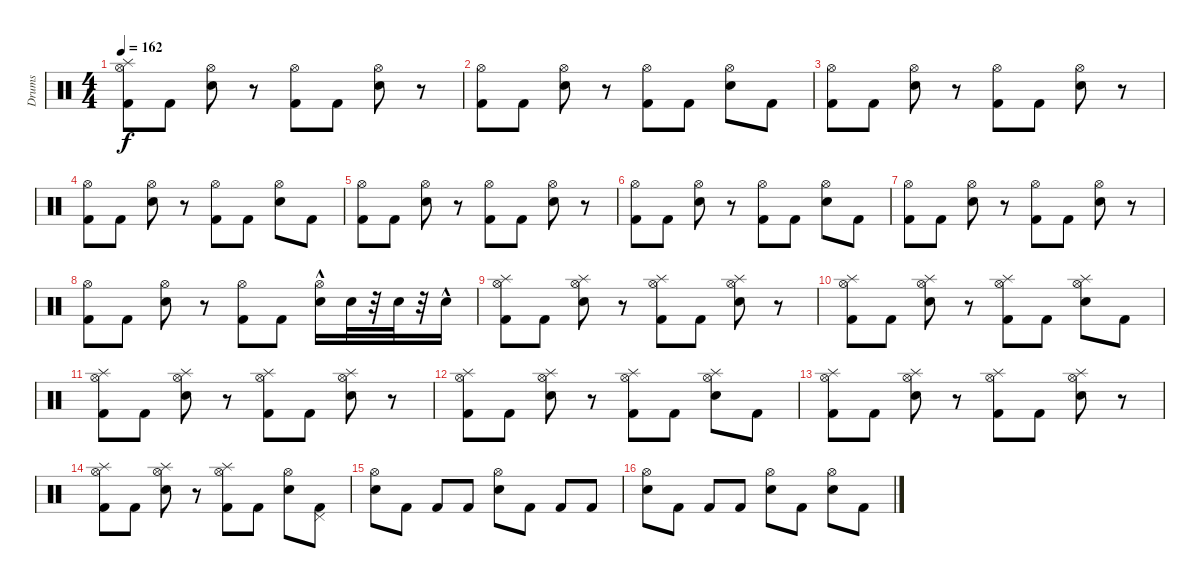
\track ("Drums" "Drums") {instrument percussion}
\staff {score}
\articulation defaults
\ts (4 4)
\tempo 162
\clef neutral
\ks c
("Hi-Hat (open)" "Kick (hit) 2" "Splash (hit)").8{dy f} "Kick (hit) 2".8 ("Hi-Hat (open)" "Electric Snare (hit)").8 r.8 ("Hi-Hat (open)" "Kick (hit) 2").8 "Kick (hit) 2".8 ("Hi-Hat (open)" "Electric Snare (hit)").8 r.8 |
("Hi-Hat (open)" "Kick (hit) 2").8 "Kick (hit) 2".8 ("Hi-Hat (open)" "Electric Snare (hit)").8 r.8 ("Hi-Hat (open)" "Kick (hit) 2").8 "Kick (hit) 2".8 ("Hi-Hat (open)" "Electric Snare (hit)").8 "Kick (hit) 2".8 |
("Hi-Hat (open)" "Kick (hit) 2").8 "Kick (hit) 2".8 ("Hi-Hat (open)" "Electric Snare (hit)").8 r.8 ("Hi-Hat (open)" "Kick (hit) 2").8 "Kick (hit) 2".8 ("Hi-Hat (open)" "Electric Snare (hit)").8 r.8 |
("Hi-Hat (open)" "Kick (hit) 2").8 "Kick (hit) 2".8 ("Hi-Hat (open)" "Electric Snare (hit)").8 r.8 ("Hi-Hat (open)" "Kick (hit) 2").8 "Kick (hit) 2".8 ("Hi-Hat (open)" "Electric Snare (hit)").8 "Kick (hit) 2".8 |
("Hi-Hat (open)" "Kick (hit) 2").8 "Kick (hit) 2".8 ("Hi-Hat (open)" "Electric Snare (hit)").8 r.8 ("Hi-Hat (open)" "Kick (hit) 2").8 "Kick (hit) 2".8 ("Hi-Hat (open)" "Electric Snare (hit)").8 r.8 |
("Hi-Hat (open)" "Kick (hit) 2").8 "Kick (hit) 2".8 ("Hi-Hat (open)" "Electric Snare (hit)").8 r.8 ("Hi-Hat (open)" "Kick (hit) 2").8 "Kick (hit) 2".8 ("Hi-Hat (open)" "Electric Snare (hit)").8 "Kick (hit) 2".8 |
("Hi-Hat (open)" "Kick (hit) 2").8 "Kick (hit) 2".8 ("Hi-Hat (open)" "Electric Snare (hit)").8 r.8 ("Hi-Hat (open)" "Kick (hit) 2").8 "Kick (hit) 2".8 ("Hi-Hat (open)" "Electric Snare (hit)").8 r.8 |
("Hi-Hat (open)" "Kick (hit) 2").8 "Kick (hit) 2".8 ("Hi-Hat (open)" "Electric Snare (hit)").8 r.8 ("Hi-Hat (open)" "Kick (hit) 2").8 "Kick (hit) 2".8 ("Hi-Hat (open)"{hac} "Electric Snare (hit)").16 "Electric Snare (hit)".32 r.32 "Electric Snare (hit)".32 r.32 "Electric Snare (hit)"{hac}.16 |
("Kick (hit) 2" "Splash (hit)" "Hi-Hat (open)").8 "Kick (hit) 2".8 ("Electric Snare (hit)" "Splash (hit)" "Hi-Hat (open)").8 r.8 ("Kick (hit) 2" "Splash (hit)" "Hi-Hat (open)").8 "Kick (hit) 2".8 ("Electric Snare (hit)" "Splash (hit)" "Hi-Hat (open)").8 r.8 |
("Hi-Hat (open)" "Kick (hit) 2" "Splash (hit)").8 "Kick (hit) 2".8 ("Hi-Hat (open)" "Electric Snare (hit)" "Splash (hit)").8 r.8 ("Hi-Hat (open)" "Kick (hit) 2" "Splash (hit)").8 "Kick (hit) 2".8 ("Hi-Hat (open)" "Electric Snare (hit)" "Splash (hit)").8 "Kick (hit) 2".8 |
("Kick (hit) 2" "Splash (hit)" "Hi-Hat (open)").8 "Kick (hit) 2".8 ("Electric Snare (hit)" "Splash (hit)" "Hi-Hat (open)").8 r.8 ("Kick (hit) 2" "Splash (hit)" "Hi-Hat (open)").8 "Kick (hit) 2".8 ("Electric Snare (hit)" "Splash (hit)" "Hi-Hat (open)").8 r.8 |
("Hi-Hat (open)" "Kick (hit) 2" "Splash (hit)").8 "Kick (hit) 2".8 ("Hi-Hat (open)" "Electric Snare (hit)" "Splash (hit)").8 r.8 ("Hi-Hat (open)" "Kick (hit) 2" "Splash (hit)").8 "Kick (hit) 2".8 ("Hi-Hat (open)" "Electric Snare (hit)" "Splash (hit)").8 "Kick (hit) 2".8 |
("Kick (hit) 2" "Splash (hit)" "Hi-Hat (open)").8 "Kick (hit) 2".8 ("Electric Snare (hit)" "Splash (hit)" "Hi-Hat (open)").8 r.8 ("Kick (hit) 2" "Splash (hit)" "Hi-Hat (open)").8 "Kick (hit) 2".8 ("Electric Snare (hit)" "Splash (hit)" "Hi-Hat (open)").8 r.8 |
("Hi-Hat (open)" "Kick (hit) 2" "Splash (hit)").8 "Kick (hit) 2".8 ("Hi-Hat (open)" "Electric Snare (hit)" "Splash (hit)").8 r.8 ("Hi-Hat (open)" "Kick (hit) 2" "Splash (hit)").8 "Kick (hit) 2".8 ("Electric Snare (hit)" "Hi-Hat (open)").8 ("Kick (hit) 2" "Pedal Hi-Hat (hit)").8 |
("Electric Snare (hit)" "Hi-Hat (open)").8 "Kick (hit) 2".8 "Kick (hit) 2".8 "Kick (hit) 2".8 ("Electric Snare (hit)" "Hi-Hat (open)").8 "Kick (hit) 2".8 "Kick (hit) 2".8 "Kick (hit) 2".8 |
("Electric Snare (hit)" "Hi-Hat (open)").8 "Kick (hit) 2".8 "Kick (hit) 2".8 "Kick (hit) 2".8 ("Electric Snare (hit)" "Hi-Hat (open)").8 "Kick (hit) 2".8 ("Electric Snare (hit)" "Hi-Hat (open)").8 "Kick (hit) 2".8
